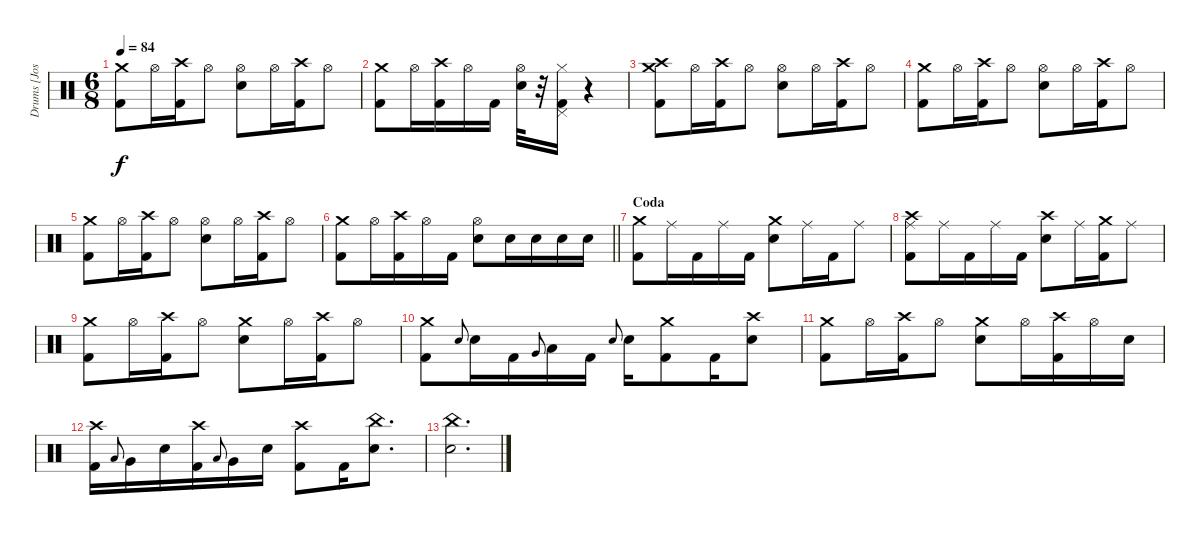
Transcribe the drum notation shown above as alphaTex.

\track ("Drums [Josh Freese]" "Drums [Jos") {instrument percussion}
\staff {score}
\articulation defaults
\ts (6 8)
\tempo 84
\clef neutral
\ks c
("Crash medium (hit)" "Kick (hit) 2").8{dy f} "Hi-Hat (open)".16 ("Crash high (hit)" "Kick (hit) 2").16 "Hi-Hat (open)".8 ("Hi-Hat (open)" "Electric Snare (hit)").8 "Hi-Hat (open)".16 ("Crash high (hit)" "Kick (hit) 2").16 "Hi-Hat (open)".8 |
("Crash medium (hit)" "Kick (hit) 2").8 "Hi-Hat (open)".16 ("Crash high (hit)" "Kick (hit) 2").16 "Hi-Hat (open)".16 "Kick (hit) 2".16 ("Hi-Hat (open)" "Electric Snare (hit)").32 r.32 ("Pedal Hi-Hat (hit)" "Hi-Hat (closed)" "Kick (hit) 2").16 r.4 |
("Crash medium (hit)" "Crash high (hit)" "Kick (hit) 2").8 "Hi-Hat (open)".16 ("Crash high (hit)" "Kick (hit) 2").16 "Hi-Hat (open)".8 ("Hi-Hat (open)" "Electric Snare (hit)").8 "Hi-Hat (open)".16 ("Crash high (hit)" "Kick (hit) 2").16 "Hi-Hat (open)".8 |
("Crash medium (hit)" "Kick (hit) 2").8 "Hi-Hat (open)".16 ("Crash high (hit)" "Kick (hit) 2").16 "Hi-Hat (open)".8 ("Hi-Hat (open)" "Electric Snare (hit)").8 "Hi-Hat (open)".16 ("Crash high (hit)" "Kick (hit) 2").16 "Hi-Hat (open)".8 |
("Crash medium (hit)" "Kick (hit) 2").8 "Hi-Hat (open)".16 ("Crash high (hit)" "Kick (hit) 2").16 "Hi-Hat (open)".8 ("Hi-Hat (open)" "Electric Snare (hit)").8 "Hi-Hat (open)".16 ("Crash high (hit)" "Kick (hit) 2").16 "Hi-Hat (open)".8 |
\barLineRight lightlight
("Crash medium (hit)" "Kick (hit) 2").8 "Hi-Hat (open)".16 ("Crash high (hit)" "Kick (hit) 2").16 "Hi-Hat (open)".16 "Kick (hit) 2".16 ("Hi-Hat (open)" "Electric Snare (hit)").8 "Electric Snare (hit)".16 "Electric Snare (hit)".16 "Electric Snare (hit)".16 "Electric Snare (hit)".16 |
\section ("" "Coda")
("Crash medium (hit)" "Kick (hit) 2").8 "Ride (middle)".16 "Kick (hit) 2".16 "Ride (middle)".16 "Kick (hit) 2".16 ("Crash medium (hit)" "Electric Snare (hit)").8 "Ride (middle)".16 "Kick (hit) 2".16 "Ride (middle)".8 |
("Crash high (hit)" "Ride (middle)" "Kick (hit) 2").8 "Ride (middle)".16 "Kick (hit) 2".16 "Ride (middle)".16 "Kick (hit) 2".16 ("Crash high (hit)" "Electric Snare (hit)").8 "Ride (middle)".16 ("Crash medium (hit)" "Kick (hit) 2").16 "Ride (middle)".8 |
("Crash medium (hit)" "Kick (hit) 2").8 "Hi-Hat (open)".16 ("Crash high (hit)" "Kick (hit) 2").16 "Hi-Hat (open)".8 ("Crash medium (hit)" "Electric Snare (hit)").8 "Hi-Hat (open)".16 ("Crash high (hit)" "Kick (hit) 2").16 "Hi-Hat (open)".8 |
("Crash medium (hit)" "Kick (hit) 2").8 "Electric Snare (hit)".8{gr onbeat} "Electric Snare (hit)".16 "Kick (hit) 2".16 "Very Low Tom (hit)".8{gr onbeat} "Low Tom (hit)".16 "Kick (hit) 2".16 "Electric Snare (hit)".8{gr onbeat} "Electric Snare (hit)".16 ("Crash medium (hit)" "Kick (hit) 2").8 "Kick (hit) 2".16 ("Crash high (hit)" "Electric Snare (hit)").8 |
("Crash medium (hit)" "Kick (hit) 2").8 "Hi-Hat (open)".16 ("Crash high (hit)" "Kick (hit) 2").16 "Hi-Hat (open)".8 ("Crash medium (hit)" "Electric Snare (hit)").8 "Hi-Hat (open)".16 ("Crash high (hit)" "Kick (hit) 2").16 "Hi-Hat (open)".16 "Electric Snare (hit)".16 |
("Crash high (hit)" "Kick (hit) 2").16 "Low Tom (hit)".8{gr onbeat} "Very Low Tom (hit)".16 "Electric Snare (hit)".16 ("Crash high (hit)" "Kick (hit) 2").16 "Low Tom (hit)".8{gr onbeat} "Very Low Tom (hit)".16 "Electric Snare (hit)".16 ("Crash high (hit)" "Kick (hit) 2").8 "Kick (hit) 2".16 ("China (hit)" "Electric Snare (hit)").8{d} |
("China (hit)" "Electric Snare (hit)").2{d}
